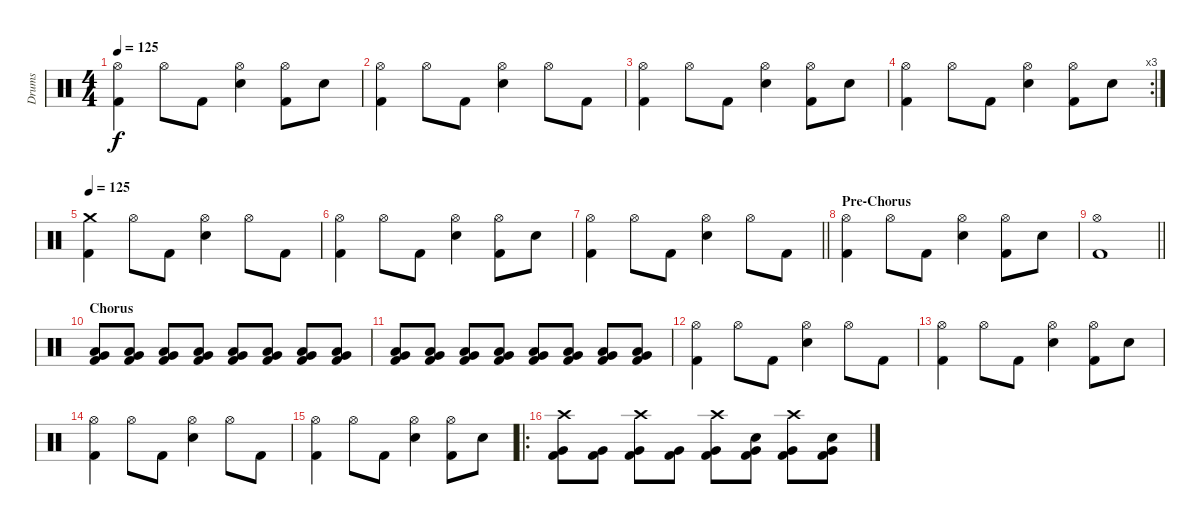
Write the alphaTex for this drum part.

\track ("Drums" "Drums") {instrument percussion}
\staff {score}
\articulation defaults
\ts (4 4)
\tempo 125
\clef neutral
\ks c
("Hi-Hat (open)" "Kick (hit) 2").4{dy f} "Hi-Hat (open)".8 "Kick (hit) 2".8 ("Hi-Hat (open)" "Snare (hit) 2").4 ("Hi-Hat (open)" "Kick (hit) 2").8 "Snare (hit) 2".8 |
("Hi-Hat (open)" "Kick (hit) 2").4 "Hi-Hat (open)".8 "Kick (hit) 2".8 ("Hi-Hat (open)" "Snare (hit) 2").4 "Hi-Hat (open)".8 "Kick (hit) 2".8 |
("Hi-Hat (open)" "Kick (hit) 2").4 "Hi-Hat (open)".8 "Kick (hit) 2".8 ("Hi-Hat (open)" "Snare (hit) 2").4 ("Hi-Hat (open)" "Kick (hit) 2").8 "Snare (hit) 2".8 |
\rc 3
("Hi-Hat (open)" "Kick (hit) 2").4 "Hi-Hat (open)".8 "Kick (hit) 2".8 ("Hi-Hat (open)" "Snare (hit) 2").4 ("Hi-Hat (open)" "Kick (hit) 2").8 "Snare (hit) 2".8 |
\tempo 125
("Crash medium (hit)" "Kick (hit) 2").4 "Hi-Hat (open)".8 "Kick (hit) 2".8 ("Hi-Hat (open)" "Snare (hit) 2").4 "Hi-Hat (open)".8 "Kick (hit) 2".8 |
("Hi-Hat (open)" "Kick (hit) 2").4 "Hi-Hat (open)".8 "Kick (hit) 2".8 ("Hi-Hat (open)" "Snare (hit) 2").4 ("Hi-Hat (open)" "Kick (hit) 2").8 "Snare (hit) 2".8 |
\barLineRight lightlight
("Hi-Hat (open)" "Kick (hit) 2").4 "Hi-Hat (open)".8 "Kick (hit) 2".8 ("Hi-Hat (open)" "Snare (hit) 2").4 "Hi-Hat (open)".8 "Kick (hit) 2".8 |
\section ("" "Pre-Chorus")
("Hi-Hat (open)" "Kick (hit) 2").4 "Hi-Hat (open)".8 "Kick (hit) 2".8 ("Hi-Hat (open)" "Snare (hit) 2").4 ("Hi-Hat (open)" "Kick (hit) 2").8 "Snare (hit) 2".8 |
\barLineRight lightlight
("Hi-Hat (open)" "Kick (hit) 2").1 |
\section ("" "Chorus")
("Very Low Tom (hit)" "Low Floor Tom (hit)" "Kick (hit) 2").8 ("Very Low Tom (hit)" "Low Floor Tom (hit)" "Kick (hit) 2").8 ("Very Low Tom (hit)" "Low Floor Tom (hit)" "Kick (hit) 2").8 ("Very Low Tom (hit)" "Low Floor Tom (hit)" "Kick (hit) 2").8 ("Very Low Tom (hit)" "Low Floor Tom (hit)" "Kick (hit) 2").8 ("Very Low Tom (hit)" "Low Floor Tom (hit)" "Kick (hit) 2").8 ("Very Low Tom (hit)" "Low Floor Tom (hit)" "Kick (hit) 2").8 ("Very Low Tom (hit)" "Low Floor Tom (hit)" "Kick (hit) 2").8 |
("Very Low Tom (hit)" "Low Floor Tom (hit)" "Kick (hit) 2").8 ("Very Low Tom (hit)" "Low Floor Tom (hit)" "Kick (hit) 2").8 ("Very Low Tom (hit)" "Low Floor Tom (hit)" "Kick (hit) 2").8 ("Very Low Tom (hit)" "Low Floor Tom (hit)" "Kick (hit) 2").8 ("Very Low Tom (hit)" "Low Floor Tom (hit)" "Kick (hit) 2").8 ("Very Low Tom (hit)" "Low Floor Tom (hit)" "Kick (hit) 2").8 ("Very Low Tom (hit)" "Low Floor Tom (hit)" "Kick (hit) 2").8 ("Very Low Tom (hit)" "Low Floor Tom (hit)" "Kick (hit) 2").8 |
("Hi-Hat (open)" "Kick (hit) 2").4 "Hi-Hat (open)".8 "Kick (hit) 2".8 ("Hi-Hat (open)" "Snare (hit) 2").4 "Hi-Hat (open)".8 "Kick (hit) 2".8 |
("Hi-Hat (open)" "Kick (hit) 2").4 "Hi-Hat (open)".8 "Kick (hit) 2".8 ("Hi-Hat (open)" "Snare (hit) 2").4 ("Hi-Hat (open)" "Kick (hit) 2").8 "Snare (hit) 2".8 |
("Hi-Hat (open)" "Kick (hit) 2").4 "Hi-Hat (open)".8 "Kick (hit) 2".8 ("Hi-Hat (open)" "Snare (hit) 2").4 "Hi-Hat (open)".8 "Kick (hit) 2".8 |
("Hi-Hat (open)" "Kick (hit) 2").4 "Hi-Hat (open)".8 "Kick (hit) 2".8 ("Hi-Hat (open)" "Snare (hit) 2").4 ("Hi-Hat (open)" "Kick (hit) 2").8 "Snare (hit) 2".8 |
\ro
("Crash high (hit)" "Very Low Tom (hit)" "Kick (hit) 2").8 ("Very Low Tom (hit)" "Kick (hit) 2").8 ("Crash high (hit)" "Very Low Tom (hit)" "Kick (hit) 2").8 ("Very Low Tom (hit)" "Kick (hit) 2").8 ("Crash high (hit)" "Very Low Tom (hit)" "Kick (hit) 2").8 ("Very Low Tom (hit)" "Snare (hit) 2" "Kick (hit) 2").8 ("Crash high (hit)" "Very Low Tom (hit)" "Kick (hit) 2").8 ("Very Low Tom (hit)" "Snare (hit) 2" "Kick (hit) 2").8
